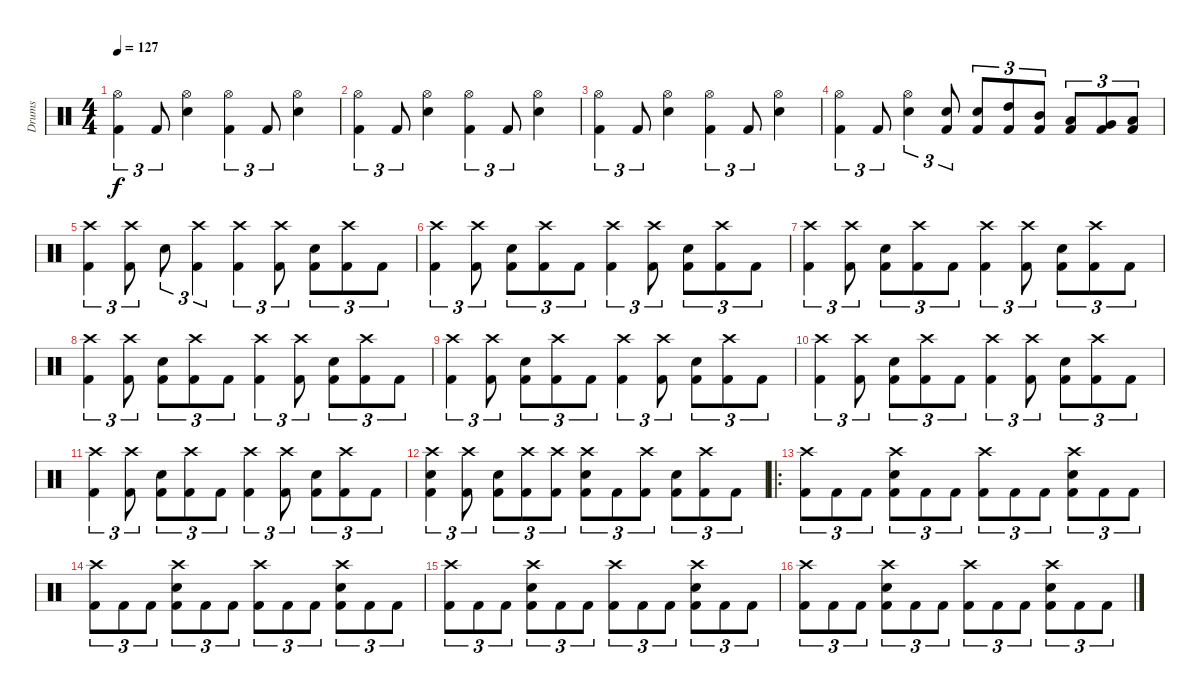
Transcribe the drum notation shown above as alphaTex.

\track ("Drums" "Drums") {instrument percussion}
\staff {score}
\articulation defaults
\ts (4 4)
\tempo 127
\clef neutral
\ks c
("Kick (hit) 2" "Hi-Hat (open)").4{tu (3 2) dy f} "Kick (hit) 2".8{tu (3 2)} ("Electric Snare (hit)" "Hi-Hat (open)").4 ("Kick (hit) 2" "Hi-Hat (open)").4{tu (3 2)} "Kick (hit) 2".8{tu (3 2)} ("Electric Snare (hit)" "Hi-Hat (open)").4 |
("Kick (hit) 2" "Hi-Hat (open)").4{tu (3 2)} "Kick (hit) 2".8{tu (3 2)} ("Electric Snare (hit)" "Hi-Hat (open)").4 ("Kick (hit) 2" "Hi-Hat (open)").4{tu (3 2)} "Kick (hit) 2".8{tu (3 2)} ("Electric Snare (hit)" "Hi-Hat (open)").4 |
("Kick (hit) 2" "Hi-Hat (open)").4{tu (3 2)} "Kick (hit) 2".8{tu (3 2)} ("Electric Snare (hit)" "Hi-Hat (open)").4 ("Kick (hit) 2" "Hi-Hat (open)").4{tu (3 2)} "Kick (hit) 2".8{tu (3 2)} ("Electric Snare (hit)" "Hi-Hat (open)").4 |
("Kick (hit) 2" "Hi-Hat (open)").4{tu (3 2)} "Kick (hit) 2".8{tu (3 2)} ("Electric Snare (hit)" "Hi-Hat (open)").4{tu (3 2)} ("Kick (hit) 2" "Electric Snare (hit)").8{tu (3 2)} ("Kick (hit) 2" "Electric Snare (hit)").8{tu (3 2)} ("Kick (hit) 2" "High Tom (hit)").8{tu (3 2)} ("Kick (hit) 2" "Mid Tom (hit)").8{tu (3 2)} ("Kick (hit) 2" "Low Tom (hit)").8{tu (3 2)} ("Kick (hit) 2" "Very Low Tom (hit)").8{tu (3 2)} ("Kick (hit) 2" "Low Floor Tom (hit)").8{tu (3 2)} |
("Kick (hit) 2" "Crash high (hit)").4{tu (3 2)} ("Kick (hit) 2" "Crash high (hit)").8{tu (3 2)} "Electric Snare (hit)".8{tu (3 2)} ("Kick (hit) 2" "Crash high (hit)").4{tu (3 2)} ("Kick (hit) 2" "Crash high (hit)").4{tu (3 2)} ("Kick (hit) 2" "Crash high (hit)").8{tu (3 2)} ("Kick (hit) 2" "Electric Snare (hit)").8{tu (3 2)} ("Kick (hit) 2" "Crash high (hit)").8{tu (3 2)} "Kick (hit) 2".8{tu (3 2)} |
("Kick (hit) 2" "Crash high (hit)").4{tu (3 2)} ("Kick (hit) 2" "Crash high (hit)").8{tu (3 2)} ("Kick (hit) 2" "Electric Snare (hit)").8{tu (3 2)} ("Kick (hit) 2" "Crash high (hit)").8{tu (3 2)} "Kick (hit) 2".8{tu (3 2)} ("Kick (hit) 2" "Crash high (hit)").4{tu (3 2)} ("Kick (hit) 2" "Crash high (hit)").8{tu (3 2)} ("Kick (hit) 2" "Electric Snare (hit)").8{tu (3 2)} ("Kick (hit) 2" "Crash high (hit)").8{tu (3 2)} "Kick (hit) 2".8{tu (3 2)} |
("Kick (hit) 2" "Crash high (hit)").4{tu (3 2)} ("Kick (hit) 2" "Crash high (hit)").8{tu (3 2)} ("Kick (hit) 2" "Electric Snare (hit)").8{tu (3 2)} ("Kick (hit) 2" "Crash high (hit)").8{tu (3 2)} "Kick (hit) 2".8{tu (3 2)} ("Kick (hit) 2" "Crash high (hit)").4{tu (3 2)} ("Kick (hit) 2" "Crash high (hit)").8{tu (3 2)} ("Kick (hit) 2" "Electric Snare (hit)").8{tu (3 2)} ("Kick (hit) 2" "Crash high (hit)").8{tu (3 2)} "Kick (hit) 2".8{tu (3 2)} |
("Kick (hit) 2" "Crash high (hit)").4{tu (3 2)} ("Kick (hit) 2" "Crash high (hit)").8{tu (3 2)} ("Kick (hit) 2" "Electric Snare (hit)").8{tu (3 2)} ("Kick (hit) 2" "Crash high (hit)").8{tu (3 2)} "Kick (hit) 2".8{tu (3 2)} ("Kick (hit) 2" "Crash high (hit)").4{tu (3 2)} ("Kick (hit) 2" "Crash high (hit)").8{tu (3 2)} ("Kick (hit) 2" "Electric Snare (hit)").8{tu (3 2)} ("Kick (hit) 2" "Crash high (hit)").8{tu (3 2)} "Kick (hit) 2".8{tu (3 2)} |
("Kick (hit) 2" "Crash high (hit)").4{tu (3 2)} ("Kick (hit) 2" "Crash high (hit)").8{tu (3 2)} ("Kick (hit) 2" "Electric Snare (hit)").8{tu (3 2)} ("Kick (hit) 2" "Crash high (hit)").8{tu (3 2)} "Kick (hit) 2".8{tu (3 2)} ("Kick (hit) 2" "Crash high (hit)").4{tu (3 2)} ("Kick (hit) 2" "Crash high (hit)").8{tu (3 2)} ("Kick (hit) 2" "Electric Snare (hit)").8{tu (3 2)} ("Kick (hit) 2" "Crash high (hit)").8{tu (3 2)} "Kick (hit) 2".8{tu (3 2)} |
("Kick (hit) 2" "Crash high (hit)").4{tu (3 2)} ("Kick (hit) 2" "Crash high (hit)").8{tu (3 2)} ("Kick (hit) 2" "Electric Snare (hit)").8{tu (3 2)} ("Kick (hit) 2" "Crash high (hit)").8{tu (3 2)} "Kick (hit) 2".8{tu (3 2)} ("Kick (hit) 2" "Crash high (hit)").4{tu (3 2)} ("Kick (hit) 2" "Crash high (hit)").8{tu (3 2)} ("Kick (hit) 2" "Electric Snare (hit)").8{tu (3 2)} ("Kick (hit) 2" "Crash high (hit)").8{tu (3 2)} "Kick (hit) 2".8{tu (3 2)} |
("Kick (hit) 2" "Crash high (hit)").4{tu (3 2)} ("Kick (hit) 2" "Crash high (hit)").8{tu (3 2)} ("Kick (hit) 2" "Electric Snare (hit)").8{tu (3 2)} ("Kick (hit) 2" "Crash high (hit)").8{tu (3 2)} "Kick (hit) 2".8{tu (3 2)} ("Kick (hit) 2" "Crash high (hit)").4{tu (3 2)} ("Kick (hit) 2" "Crash high (hit)").8{tu (3 2)} ("Kick (hit) 2" "Electric Snare (hit)").8{tu (3 2)} ("Kick (hit) 2" "Crash high (hit)").8{tu (3 2)} "Kick (hit) 2".8{tu (3 2)} |
("Kick (hit) 2" "Electric Snare (hit)" "Crash high (hit)").4{tu (3 2)} ("Kick (hit) 2" "Crash high (hit)").8{tu (3 2)} ("Kick (hit) 2" "Electric Snare (hit)").8{tu (3 2)} ("Kick (hit) 2" "Crash high (hit)").8{tu (3 2)} ("Kick (hit) 2" "Crash high (hit)").8{tu (3 2)} ("Kick (hit) 2" "Electric Snare (hit)" "Crash high (hit)").8{tu (3 2)} "Kick (hit) 2".8{tu (3 2)} ("Kick (hit) 2" "Crash high (hit)").8{tu (3 2)} ("Kick (hit) 2" "Electric Snare (hit)").8{tu (3 2)} ("Kick (hit) 2" "Crash high (hit)").8{tu (3 2)} "Kick (hit) 2".8{tu (3 2)} |
\ro
("Kick (hit) 2" "Crash high (hit)").8{tu (3 2)} "Kick (hit) 2".8{tu (3 2)} "Kick (hit) 2".8{tu (3 2)} ("Kick (hit) 2" "Electric Snare (hit)" "Crash high (hit)").8{tu (3 2)} "Kick (hit) 2".8{tu (3 2)} "Kick (hit) 2".8{tu (3 2)} ("Kick (hit) 2" "Crash high (hit)").8{tu (3 2)} "Kick (hit) 2".8{tu (3 2)} "Kick (hit) 2".8{tu (3 2)} ("Kick (hit) 2" "Electric Snare (hit)" "Crash high (hit)").8{tu (3 2)} "Kick (hit) 2".8{tu (3 2)} "Kick (hit) 2".8{tu (3 2)} |
("Kick (hit) 2" "Crash high (hit)").8{tu (3 2)} "Kick (hit) 2".8{tu (3 2)} "Kick (hit) 2".8{tu (3 2)} ("Kick (hit) 2" "Electric Snare (hit)" "Crash high (hit)").8{tu (3 2)} "Kick (hit) 2".8{tu (3 2)} "Kick (hit) 2".8{tu (3 2)} ("Kick (hit) 2" "Crash high (hit)").8{tu (3 2)} "Kick (hit) 2".8{tu (3 2)} "Kick (hit) 2".8{tu (3 2)} ("Kick (hit) 2" "Electric Snare (hit)" "Crash high (hit)").8{tu (3 2)} "Kick (hit) 2".8{tu (3 2)} "Kick (hit) 2".8{tu (3 2)} |
("Kick (hit) 2" "Crash high (hit)").8{tu (3 2)} "Kick (hit) 2".8{tu (3 2)} "Kick (hit) 2".8{tu (3 2)} ("Kick (hit) 2" "Electric Snare (hit)" "Crash high (hit)").8{tu (3 2)} "Kick (hit) 2".8{tu (3 2)} "Kick (hit) 2".8{tu (3 2)} ("Kick (hit) 2" "Crash high (hit)").8{tu (3 2)} "Kick (hit) 2".8{tu (3 2)} "Kick (hit) 2".8{tu (3 2)} ("Kick (hit) 2" "Electric Snare (hit)" "Crash high (hit)").8{tu (3 2)} "Kick (hit) 2".8{tu (3 2)} "Kick (hit) 2".8{tu (3 2)} |
("Kick (hit) 2" "Crash high (hit)").8{tu (3 2)} "Kick (hit) 2".8{tu (3 2)} "Kick (hit) 2".8{tu (3 2)} ("Kick (hit) 2" "Electric Snare (hit)" "Crash high (hit)").8{tu (3 2)} "Kick (hit) 2".8{tu (3 2)} "Kick (hit) 2".8{tu (3 2)} ("Kick (hit) 2" "Crash high (hit)").8{tu (3 2)} "Kick (hit) 2".8{tu (3 2)} "Kick (hit) 2".8{tu (3 2)} ("Kick (hit) 2" "Electric Snare (hit)" "Crash high (hit)").8{tu (3 2)} "Kick (hit) 2".8{tu (3 2)} "Kick (hit) 2".8{tu (3 2)}
